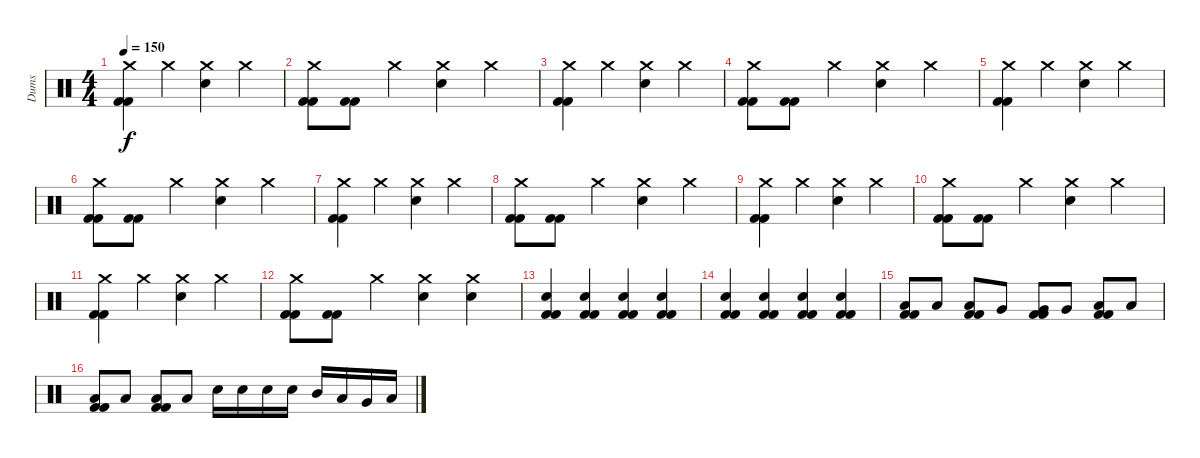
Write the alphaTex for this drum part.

\track ("Dums" "Dums") {instrument percussion}
\staff {score}
\articulation defaults
\ts (4 4)
\tempo 150
\clef neutral
\ks c
("Crash medium (hit)" "Kick (hit) 2" "Kick (hit) 2").4{dy f} "Crash medium (hit)".4 ("Crash medium (hit)" "Electric Snare (hit)").4 "Crash medium (hit)".4 |
("Crash medium (hit)" "Kick (hit) 2" "Kick (hit) 2").8 ("Kick (hit) 2" "Kick (hit) 2").8 "Crash medium (hit)".4 ("Crash medium (hit)" "Electric Snare (hit)").4 "Crash medium (hit)".4 |
("Crash medium (hit)" "Kick (hit) 2" "Kick (hit) 2").4 "Crash medium (hit)".4 ("Crash medium (hit)" "Electric Snare (hit)").4 "Crash medium (hit)".4 |
("Crash medium (hit)" "Kick (hit) 2" "Kick (hit) 2").8 ("Kick (hit) 2" "Kick (hit) 2").8 "Crash medium (hit)".4 ("Crash medium (hit)" "Electric Snare (hit)").4 "Crash medium (hit)".4 |
("Crash medium (hit)" "Kick (hit) 2" "Kick (hit) 2").4 "Crash medium (hit)".4 ("Crash medium (hit)" "Electric Snare (hit)").4 "Crash medium (hit)".4 |
("Crash medium (hit)" "Kick (hit) 2" "Kick (hit) 2").8 ("Kick (hit) 2" "Kick (hit) 2").8 "Crash medium (hit)".4 ("Crash medium (hit)" "Electric Snare (hit)").4 "Crash medium (hit)".4 |
("Crash medium (hit)" "Kick (hit) 2" "Kick (hit) 2").4 "Crash medium (hit)".4 ("Crash medium (hit)" "Electric Snare (hit)").4 "Crash medium (hit)".4 |
("Crash medium (hit)" "Kick (hit) 2" "Kick (hit) 2").8 ("Kick (hit) 2" "Kick (hit) 2").8 "Crash medium (hit)".4 ("Crash medium (hit)" "Electric Snare (hit)").4 "Crash medium (hit)".4 |
("Crash medium (hit)" "Kick (hit) 2" "Kick (hit) 2").4 "Crash medium (hit)".4 ("Crash medium (hit)" "Electric Snare (hit)").4 "Crash medium (hit)".4 |
("Crash medium (hit)" "Kick (hit) 2" "Kick (hit) 2").8 ("Kick (hit) 2" "Kick (hit) 2").8 "Crash medium (hit)".4 ("Crash medium (hit)" "Electric Snare (hit)").4 "Crash medium (hit)".4 |
("Crash medium (hit)" "Kick (hit) 2" "Kick (hit) 2").4 "Crash medium (hit)".4 ("Crash medium (hit)" "Electric Snare (hit)").4 "Crash medium (hit)".4 |
("Crash medium (hit)" "Kick (hit) 2" "Kick (hit) 2").8 ("Kick (hit) 2" "Kick (hit) 2").8 "Crash medium (hit)".4 ("Crash medium (hit)" "Electric Snare (hit)").4 ("Crash medium (hit)" "Electric Snare (hit)").4 |
("Electric Snare (hit)" "Kick (hit) 2" "Kick (hit) 2").4 ("Electric Snare (hit)" "Kick (hit) 2" "Kick (hit) 2").4 ("Electric Snare (hit)" "Kick (hit) 2" "Kick (hit) 2").4 ("Electric Snare (hit)" "Kick (hit) 2" "Kick (hit) 2").4 |
("Electric Snare (hit)" "Kick (hit) 2" "Kick (hit) 2").4 ("Electric Snare (hit)" "Kick (hit) 2" "Kick (hit) 2").4 ("Electric Snare (hit)" "Kick (hit) 2" "Kick (hit) 2").4 ("Electric Snare (hit)" "Kick (hit) 2" "Kick (hit) 2").4 |
("Low Tom (hit)" "Kick (hit) 2" "Kick (hit) 2").8 "Low Tom (hit)".8 ("Low Tom (hit)" "Kick (hit) 2" "Kick (hit) 2").8 "Very Low Tom (hit)".8 ("Very Low Tom (hit)" "Kick (hit) 2" "Kick (hit) 2").8 "Very Low Tom (hit)".8 ("Low Floor Tom (hit)" "Kick (hit) 2" "Kick (hit) 2").8 "Low Floor Tom (hit)".8 |
("Low Floor Tom (hit)" "Kick (hit) 2" "Kick (hit) 2").8 "Low Floor Tom (hit)".8 ("Low Floor Tom (hit)" "Kick (hit) 2" "Kick (hit) 2").8 "Low Floor Tom (hit)".8 "Electric Snare (hit)".16 "Electric Snare (hit)".16 "Electric Snare (hit)".16 "Electric Snare (hit)".16 "Mid Tom (hit)".16 "Low Tom (hit)".16 "Very Low Tom (hit)".16 "Low Floor Tom (hit)".16
